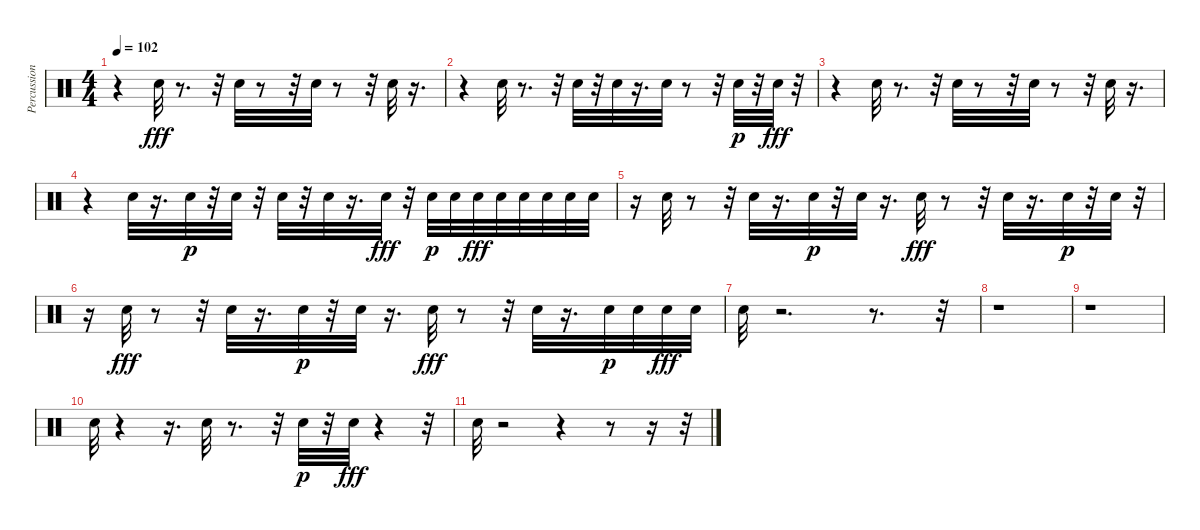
\track ("Percussion" "Percussion") {instrument percussion}
\staff {score}
\articulation defaults
\ts (4 4)
\tempo 102
\clef neutral
\ks c
r.4{dy fff} "Snare (hit) 2".32 r.8{d} r.32 "Snare (hit) 2".32 r.8 r.32 "Snare (hit) 2".32 r.8 r.32 "Snare (hit) 2".32 r.16{d} |
r.4 "Snare (hit) 2".32 r.8{d} r.32 "Snare (hit) 2".32 r.32 "Snare (hit) 2".32 r.16{d} "Snare (hit) 2".32 r.8 r.32 "Snare (hit) 2".32{dy p} r.32 "Snare (hit) 2".32{dy fff} r.32 |
r.4 "Snare (hit) 2".32 r.8{d} r.32 "Snare (hit) 2".32 r.8 r.32 "Snare (hit) 2".32 r.8 r.32 "Snare (hit) 2".32 r.16{d} |
r.4 "Snare (hit) 2".32 r.16{d} "Snare (hit) 2".32{dy p} r.32 "Snare (hit) 2".32 r.32 "Snare (hit) 2".32 r.32 "Snare (hit) 2".32 r.16{d} "Snare (hit) 2".32{dy fff} r.32 "Snare (hit) 2".32{dy p} "Snare (hit) 2".32 "Snare (hit) 2".32{dy fff} "Snare (hit) 2".32 "Snare (hit) 2".32 "Snare (hit) 2".32 "Snare (hit) 2".32 "Snare (hit) 2".32 |
r.16 "Snare (hit) 2".32 r.8 r.32 "Snare (hit) 2".32 r.16{d} "Snare (hit) 2".32{dy p} r.32 "Snare (hit) 2".32 r.16{d} "Snare (hit) 2".32{dy fff} r.8 r.32 "Snare (hit) 2".32 r.16{d} "Snare (hit) 2".32{dy p} r.32 "Snare (hit) 2".32 r.32 |
r.16 "Snare (hit) 2".32{dy fff} r.8 r.32 "Snare (hit) 2".32 r.16{d} "Snare (hit) 2".32{dy p} r.32 "Snare (hit) 2".32 r.16{d} "Snare (hit) 2".32{dy fff} r.8 r.32 "Snare (hit) 2".32 r.16{d} "Snare (hit) 2".32{dy p} "Snare (hit) 2".32 "Snare (hit) 2".32{dy fff} "Snare (hit) 2".32 |
"Snare (hit) 2".32 r.2{d} r.8{d} r.32 |
r.1 |
r.1 |
"Snare (hit) 2".32 r.4 r.16{d} "Snare (hit) 2".32 r.8{d} r.32 "Snare (hit) 2".32{dy p} r.32 "Snare (hit) 2".32{dy fff} r.4 r.32 |
"Snare (hit) 2".32 r.2 r.4 r.8 r.16 r.32
